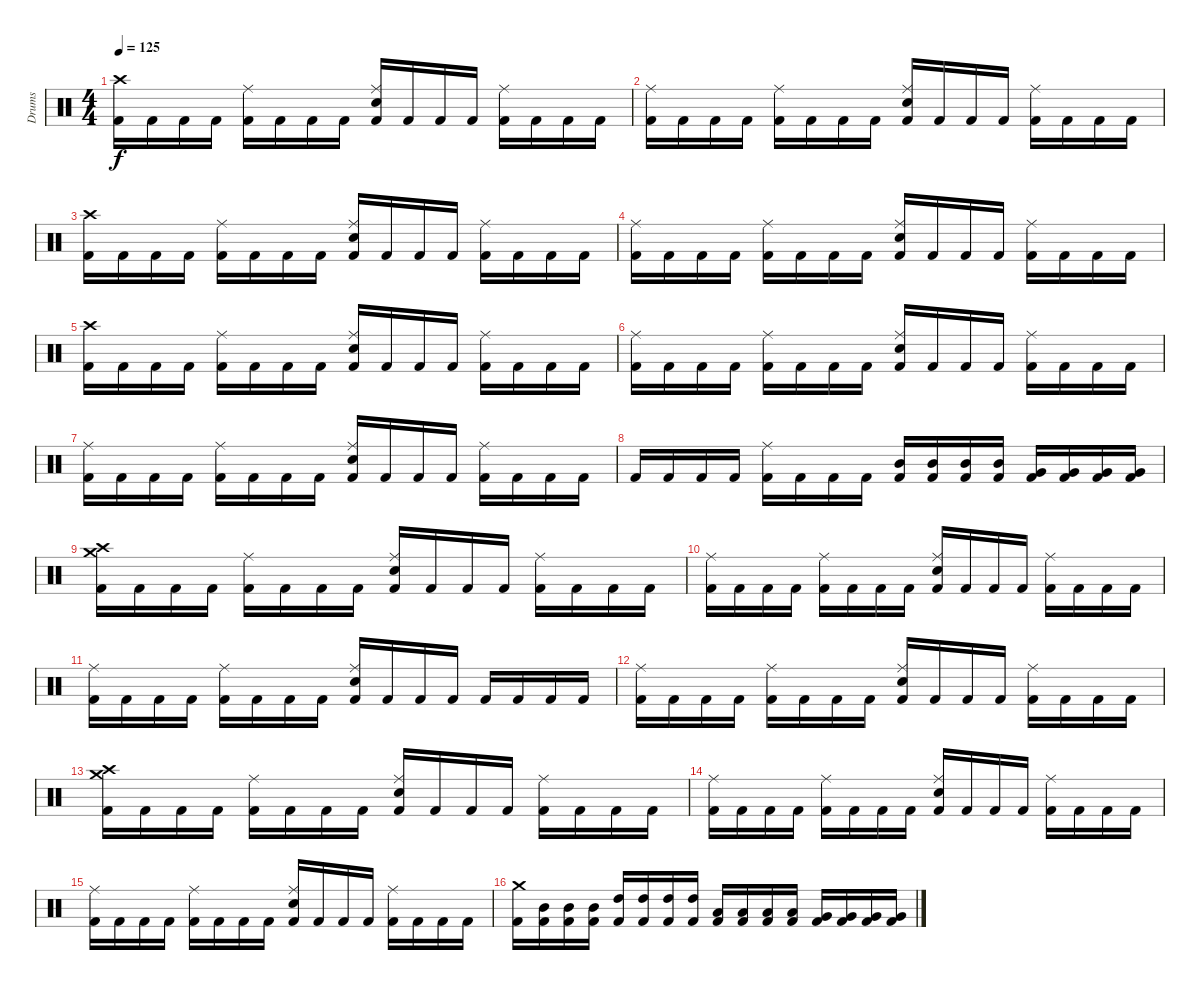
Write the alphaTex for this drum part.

\track ("Drums" "Drums") {instrument percussion}
\staff {score}
\articulation defaults
\ts (4 4)
\tempo 125
\clef neutral
\ks c
("Crash high (hit)" "Kick (hit) 2").16{dy f} "Kick (hit) 2".16 "Kick (hit) 2".16 "Kick (hit) 2".16 ("Ride (middle)" "Kick (hit) 2").16 "Kick (hit) 2".16 "Kick (hit) 2".16 "Kick (hit) 2".16 ("Ride (middle)" "Electric Snare (hit)" "Kick (hit) 2").16 "Kick (hit) 2".16 "Kick (hit) 2".16 "Kick (hit) 2".16 ("Ride (middle)" "Kick (hit) 2").16 "Kick (hit) 2".16 "Kick (hit) 2".16 "Kick (hit) 2".16 |
("Ride (middle)" "Kick (hit) 2").16 "Kick (hit) 2".16 "Kick (hit) 2".16 "Kick (hit) 2".16 ("Ride (middle)" "Kick (hit) 2").16 "Kick (hit) 2".16 "Kick (hit) 2".16 "Kick (hit) 2".16 ("Ride (middle)" "Electric Snare (hit)" "Kick (hit) 2").16 "Kick (hit) 2".16 "Kick (hit) 2".16 "Kick (hit) 2".16 ("Ride (middle)" "Kick (hit) 2").16 "Kick (hit) 2".16 "Kick (hit) 2".16 "Kick (hit) 2".16 |
("Crash high (hit)" "Kick (hit) 2").16 "Kick (hit) 2".16 "Kick (hit) 2".16 "Kick (hit) 2".16 ("Ride (middle)" "Kick (hit) 2").16 "Kick (hit) 2".16 "Kick (hit) 2".16 "Kick (hit) 2".16 ("Ride (middle)" "Electric Snare (hit)" "Kick (hit) 2").16 "Kick (hit) 2".16 "Kick (hit) 2".16 "Kick (hit) 2".16 ("Ride (middle)" "Kick (hit) 2").16 "Kick (hit) 2".16 "Kick (hit) 2".16 "Kick (hit) 2".16 |
("Ride (middle)" "Kick (hit) 2").16 "Kick (hit) 2".16 "Kick (hit) 2".16 "Kick (hit) 2".16 ("Ride (middle)" "Kick (hit) 2").16 "Kick (hit) 2".16 "Kick (hit) 2".16 "Kick (hit) 2".16 ("Ride (middle)" "Electric Snare (hit)" "Kick (hit) 2").16 "Kick (hit) 2".16 "Kick (hit) 2".16 "Kick (hit) 2".16 ("Ride (middle)" "Kick (hit) 2").16 "Kick (hit) 2".16 "Kick (hit) 2".16 "Kick (hit) 2".16 |
("Crash high (hit)" "Kick (hit) 2").16 "Kick (hit) 2".16 "Kick (hit) 2".16 "Kick (hit) 2".16 ("Ride (middle)" "Kick (hit) 2").16 "Kick (hit) 2".16 "Kick (hit) 2".16 "Kick (hit) 2".16 ("Ride (middle)" "Electric Snare (hit)" "Kick (hit) 2").16 "Kick (hit) 2".16 "Kick (hit) 2".16 "Kick (hit) 2".16 ("Ride (middle)" "Kick (hit) 2").16 "Kick (hit) 2".16 "Kick (hit) 2".16 "Kick (hit) 2".16 |
("Ride (middle)" "Kick (hit) 2").16 "Kick (hit) 2".16 "Kick (hit) 2".16 "Kick (hit) 2".16 ("Ride (middle)" "Kick (hit) 2").16 "Kick (hit) 2".16 "Kick (hit) 2".16 "Kick (hit) 2".16 ("Ride (middle)" "Electric Snare (hit)" "Kick (hit) 2").16 "Kick (hit) 2".16 "Kick (hit) 2".16 "Kick (hit) 2".16 ("Ride (middle)" "Kick (hit) 2").16 "Kick (hit) 2".16 "Kick (hit) 2".16 "Kick (hit) 2".16 |
("Ride (middle)" "Kick (hit) 2").16 "Kick (hit) 2".16 "Kick (hit) 2".16 "Kick (hit) 2".16 ("Ride (middle)" "Kick (hit) 2").16 "Kick (hit) 2".16 "Kick (hit) 2".16 "Kick (hit) 2".16 ("Ride (middle)" "Electric Snare (hit)" "Kick (hit) 2").16 "Kick (hit) 2".16 "Kick (hit) 2".16 "Kick (hit) 2".16 ("Ride (middle)" "Kick (hit) 2").16 "Kick (hit) 2".16 "Kick (hit) 2".16 "Kick (hit) 2".16 |
"Kick (hit) 2".16 "Kick (hit) 2".16 "Kick (hit) 2".16 "Kick (hit) 2".16 ("Ride (middle)" "Kick (hit) 2").16 "Kick (hit) 2".16 "Kick (hit) 2".16 "Kick (hit) 2".16 ("Mid Tom (hit)" "Kick (hit) 2").16 ("Mid Tom (hit)" "Kick (hit) 2").16 ("Mid Tom (hit)" "Kick (hit) 2").16 ("Mid Tom (hit)" "Kick (hit) 2").16 ("Very Low Tom (hit)" "Kick (hit) 2").16 ("Very Low Tom (hit)" "Kick (hit) 2").16 ("Very Low Tom (hit)" "Kick (hit) 2").16 ("Very Low Tom (hit)" "Kick (hit) 2").16 |
("Crash high (hit)" "Crash medium (hit)" "Kick (hit) 2").16 "Kick (hit) 2".16 "Kick (hit) 2".16 "Kick (hit) 2".16 ("Ride (middle)" "Kick (hit) 2").16 "Kick (hit) 2".16 "Kick (hit) 2".16 "Kick (hit) 2".16 ("Ride (middle)" "Electric Snare (hit)" "Kick (hit) 2").16 "Kick (hit) 2".16 "Kick (hit) 2".16 "Kick (hit) 2".16 ("Ride (middle)" "Kick (hit) 2").16 "Kick (hit) 2".16 "Kick (hit) 2".16 "Kick (hit) 2".16 |
("Ride (middle)" "Kick (hit) 2").16 "Kick (hit) 2".16 "Kick (hit) 2".16 "Kick (hit) 2".16 ("Ride (middle)" "Kick (hit) 2").16 "Kick (hit) 2".16 "Kick (hit) 2".16 "Kick (hit) 2".16 ("Ride (middle)" "Electric Snare (hit)" "Kick (hit) 2").16 "Kick (hit) 2".16 "Kick (hit) 2".16 "Kick (hit) 2".16 ("Ride (middle)" "Kick (hit) 2").16 "Kick (hit) 2".16 "Kick (hit) 2".16 "Kick (hit) 2".16 |
("Ride (middle)" "Kick (hit) 2").16 "Kick (hit) 2".16 "Kick (hit) 2".16 "Kick (hit) 2".16 ("Ride (middle)" "Kick (hit) 2").16 "Kick (hit) 2".16 "Kick (hit) 2".16 "Kick (hit) 2".16 ("Ride (middle)" "Electric Snare (hit)" "Kick (hit) 2").16 "Kick (hit) 2".16 "Kick (hit) 2".16 "Kick (hit) 2".16 "Kick (hit) 2".16 "Kick (hit) 2".16 "Kick (hit) 2".16 "Kick (hit) 2".16 |
("Ride (middle)" "Kick (hit) 2").16 "Kick (hit) 2".16 "Kick (hit) 2".16 "Kick (hit) 2".16 ("Ride (middle)" "Kick (hit) 2").16 "Kick (hit) 2".16 "Kick (hit) 2".16 "Kick (hit) 2".16 ("Ride (middle)" "Electric Snare (hit)" "Kick (hit) 2").16 "Kick (hit) 2".16 "Kick (hit) 2".16 "Kick (hit) 2".16 ("Ride (middle)" "Kick (hit) 2").16 "Kick (hit) 2".16 "Kick (hit) 2".16 "Kick (hit) 2".16 |
("Crash high (hit)" "Crash medium (hit)" "Kick (hit) 2").16 "Kick (hit) 2".16 "Kick (hit) 2".16 "Kick (hit) 2".16 ("Ride (middle)" "Kick (hit) 2").16 "Kick (hit) 2".16 "Kick (hit) 2".16 "Kick (hit) 2".16 ("Ride (middle)" "Electric Snare (hit)" "Kick (hit) 2").16 "Kick (hit) 2".16 "Kick (hit) 2".16 "Kick (hit) 2".16 ("Ride (middle)" "Kick (hit) 2").16 "Kick (hit) 2".16 "Kick (hit) 2".16 "Kick (hit) 2".16 |
("Ride (middle)" "Kick (hit) 2").16 "Kick (hit) 2".16 "Kick (hit) 2".16 "Kick (hit) 2".16 ("Ride (middle)" "Kick (hit) 2").16 "Kick (hit) 2".16 "Kick (hit) 2".16 "Kick (hit) 2".16 ("Ride (middle)" "Electric Snare (hit)" "Kick (hit) 2").16 "Kick (hit) 2".16 "Kick (hit) 2".16 "Kick (hit) 2".16 ("Ride (middle)" "Kick (hit) 2").16 "Kick (hit) 2".16 "Kick (hit) 2".16 "Kick (hit) 2".16 |
("Ride (middle)" "Kick (hit) 2").16 "Kick (hit) 2".16 "Kick (hit) 2".16 "Kick (hit) 2".16 ("Ride (middle)" "Kick (hit) 2").16 "Kick (hit) 2".16 "Kick (hit) 2".16 "Kick (hit) 2".16 ("Ride (middle)" "Electric Snare (hit)" "Kick (hit) 2").16 "Kick (hit) 2".16 "Kick (hit) 2".16 "Kick (hit) 2".16 ("Ride (middle)" "Kick (hit) 2").16 "Kick (hit) 2".16 "Kick (hit) 2".16 "Kick (hit) 2".16 |
("Crash medium (hit)" "Kick (hit) 2").16 ("Mid Tom (hit)" "Kick (hit) 2").16 ("Mid Tom (hit)" "Kick (hit) 2").16 ("Mid Tom (hit)" "Kick (hit) 2").16 ("High Tom (hit)" "Kick (hit) 2").16 ("High Tom (hit)" "Kick (hit) 2").16 ("High Tom (hit)" "Kick (hit) 2").16 ("High Tom (hit)" "Kick (hit) 2").16 ("Low Tom (hit)" "Kick (hit) 2").16 ("Low Tom (hit)" "Kick (hit) 2").16 ("Low Tom (hit)" "Kick (hit) 2").16 ("Low Tom (hit)" "Kick (hit) 2").16 ("Very Low Tom (hit)" "Kick (hit) 2").16 ("Very Low Tom (hit)" "Kick (hit) 2").16 ("Very Low Tom (hit)" "Kick (hit) 2").16 ("Very Low Tom (hit)" "Kick (hit) 2").16
